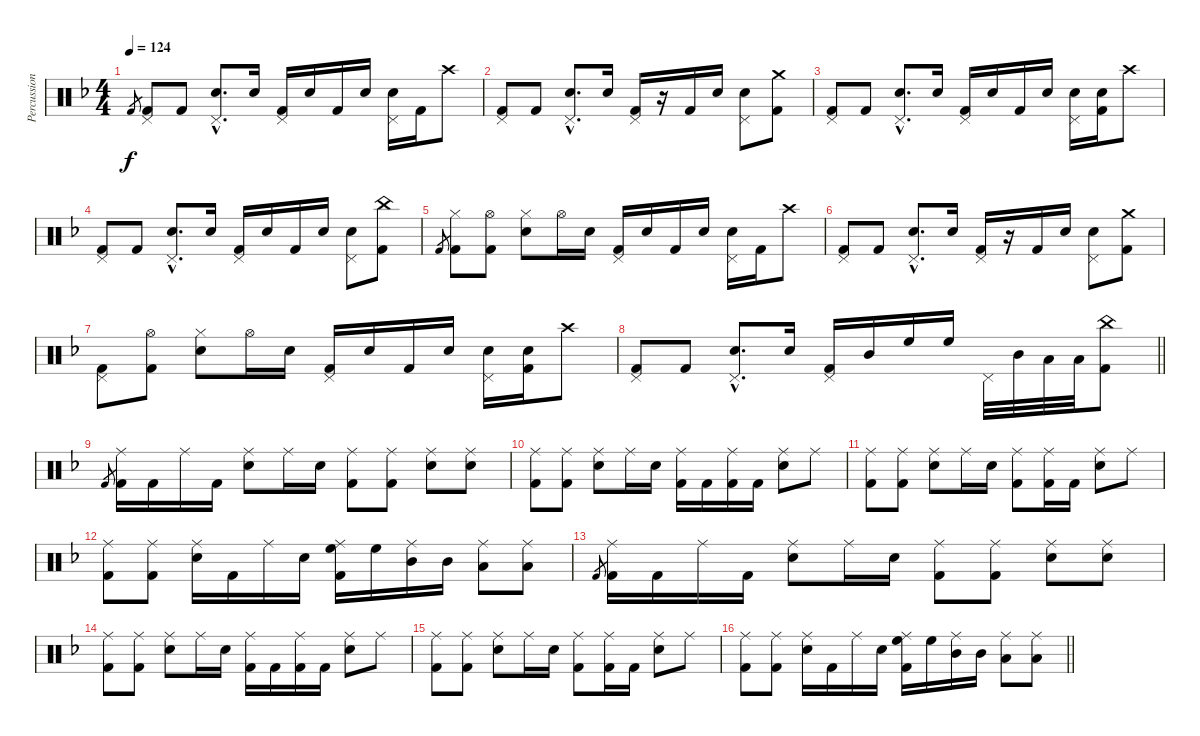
\track ("Percussions" "Percussion") {instrument percussion}
\staff {score}
\articulation defaults
\ts (4 4)
\tempo 124
\clef neutral
\ks dminor "Kick (hit) 2".8{gr dy f}
("Pedal Hi-Hat (hit)" "Kick (hit) 2").8{volume 14} "Kick (hit) 2".8 ("Pedal Hi-Hat (hit)"{hac} "Snare (hit) 2"{hac}).8{d} "Snare (hit) 2".16 ("Pedal Hi-Hat (hit)" "Kick (hit) 2").16 "Snare (hit) 2".16 "Kick (hit) 2".16 "Snare (hit) 2".16 ("Pedal Hi-Hat (hit)" "Snare (hit) 2").16 "Kick (hit) 2".16 "Crash high (hit)".8 |
("Pedal Hi-Hat (hit)" "Kick (hit) 2").8 "Kick (hit) 2".8 ("Pedal Hi-Hat (hit)"{hac} "Snare (hit) 2"{hac}).8{d} "Snare (hit) 2".16 ("Pedal Hi-Hat (hit)" "Kick (hit) 2").16 r.16 "Kick (hit) 2".16 "Snare (hit) 2".16 ("Pedal Hi-Hat (hit)" "Snare (hit) 2").8 ("Crash medium (hit)" "Kick (hit) 2").8 |
("Pedal Hi-Hat (hit)" "Kick (hit) 2").8 "Kick (hit) 2".8 ("Pedal Hi-Hat (hit)"{hac} "Snare (hit) 2"{hac}).8{d} "Snare (hit) 2".16 ("Pedal Hi-Hat (hit)" "Kick (hit) 2").16 "Snare (hit) 2".16 "Kick (hit) 2".16 "Snare (hit) 2".16 ("Pedal Hi-Hat (hit)" "Snare (hit) 2").16 ("Snare (hit) 2" "Kick (hit) 2").16 "Crash high (hit)".8 |
("Pedal Hi-Hat (hit)" "Kick (hit) 2").8 "Kick (hit) 2".8 ("Pedal Hi-Hat (hit)"{hac} "Snare (hit) 2"{hac}).8{d} "Snare (hit) 2".16 ("Pedal Hi-Hat (hit)" "Kick (hit) 2").16 "Snare (hit) 2".16 "Kick (hit) 2".16 "Snare (hit) 2".16 ("Pedal Hi-Hat (hit)" "Snare (hit) 2").8 ("China (hit)" "Kick (hit) 2").8 |
"Kick (hit) 2".8{gr} ("Hi-Hat (closed)" "Kick (hit) 2").8 ("Hi-Hat (open)" "Kick (hit) 2").8 ("Hi-Hat (closed)" "Snare (hit) 2").8 "Hi-Hat (open)".16 "Snare (hit) 2".16 ("Pedal Hi-Hat (hit)" "Kick (hit) 2").16 "Snare (hit) 2".16 "Kick (hit) 2".16 "Snare (hit) 2".16 ("Pedal Hi-Hat (hit)" "Snare (hit) 2").16 "Kick (hit) 2".16 "Crash high (hit)".8 |
("Pedal Hi-Hat (hit)" "Kick (hit) 2").8 "Kick (hit) 2".8 ("Pedal Hi-Hat (hit)"{hac} "Snare (hit) 2"{hac}).8{d} "Snare (hit) 2".16 ("Pedal Hi-Hat (hit)" "Kick (hit) 2").16 r.16 "Kick (hit) 2".16 "Snare (hit) 2".16 ("Pedal Hi-Hat (hit)" "Snare (hit) 2").8 ("Crash medium (hit)" "Kick (hit) 2").8 |
("Pedal Hi-Hat (hit)" "Kick (hit) 2").8 ("Hi-Hat (open)" "Kick (hit) 2").8 ("Hi-Hat (closed)" "Snare (hit) 2").8 "Hi-Hat (open)".16 "Snare (hit) 2".16 ("Pedal Hi-Hat (hit)" "Kick (hit) 2").16 "Snare (hit) 2".16 "Kick (hit) 2".16 "Snare (hit) 2".16 ("Pedal Hi-Hat (hit)" "Snare (hit) 2").16 ("Snare (hit) 2" "Kick (hit) 2").16 "Crash high (hit)".8 |
\barLineRight lightlight
("Pedal Hi-Hat (hit)" "Kick (hit) 2").8 "Kick (hit) 2".8 ("Pedal Hi-Hat (hit)"{hac} "Snare (hit) 2"{hac}).8{d} "Snare (hit) 2".16 ("Pedal Hi-Hat (hit)" "Kick (hit) 2").16 "Mid Tom (hit)".16 "High Floor Tom (hit)".16 "High Floor Tom (hit)".16 "Pedal Hi-Hat (hit)".32 "Mid Tom (hit)".32 "Low Tom (hit)".32 "Low Tom (hit)".32 ("China (hit)" "Kick (hit) 2").8 |
"Kick (hit) 2".8{gr} ("Ride (middle)" "Kick (hit) 2").16 "Kick (hit) 2".16 "Ride (middle)".16 "Kick (hit) 2".16 ("Ride (middle)" "Snare (hit) 2").8 "Ride (middle)".16 "Snare (hit) 2".16 ("Ride (middle)" "Kick (hit) 2").8 ("Ride (middle)" "Kick (hit) 2").8 ("Ride (middle)" "Snare (hit) 2").8 ("Ride (middle)" "Snare (hit) 2").8 |
("Ride (middle)" "Kick (hit) 2").8 ("Ride (middle)" "Kick (hit) 2").8 ("Ride (middle)" "Snare (hit) 2").8 "Ride (middle)".16 "Snare (hit) 2".16 ("Ride (middle)" "Kick (hit) 2").16 "Kick (hit) 2".16 ("Ride (middle)" "Kick (hit) 2").16 "Kick (hit) 2".16 ("Ride (middle)" "Snare (hit) 2").8 "Ride (middle)".8 |
("Ride (middle)" "Kick (hit) 2").8 ("Ride (middle)" "Kick (hit) 2").8 ("Ride (middle)" "Snare (hit) 2").8 "Ride (middle)".16 "Snare (hit) 2".16 ("Ride (middle)" "Kick (hit) 2").8 ("Ride (middle)" "Kick (hit) 2").16 "Kick (hit) 2".16 ("Ride (middle)" "Snare (hit) 2").8 "Ride (middle)".8 |
("Ride (middle)" "Kick (hit) 2").8 ("Ride (middle)" "Kick (hit) 2").8 ("Ride (middle)" "Snare (hit) 2").16 "Kick (hit) 2".16 "Ride (middle)".16 "Snare (hit) 2".16 ("Ride (middle)" "High Floor Tom (hit)" "Kick (hit) 2").16 "High Floor Tom (hit)".16 ("Ride (middle)" "Mid Tom (hit)").16 "Mid Tom (hit)".16 ("Ride (middle)" "Low Tom (hit)").8 ("Ride (middle)" "Low Floor Tom (hit)").8 |
"Kick (hit) 2".8{gr} ("Ride (middle)" "Kick (hit) 2").16 "Kick (hit) 2".16 "Ride (middle)".16 "Kick (hit) 2".16 ("Ride (middle)" "Snare (hit) 2").8 "Ride (middle)".16 "Snare (hit) 2".16 ("Ride (middle)" "Kick (hit) 2").8 ("Ride (middle)" "Kick (hit) 2").8 ("Ride (middle)" "Snare (hit) 2").8 ("Ride (middle)" "Snare (hit) 2").8 |
("Ride (middle)" "Kick (hit) 2").8 ("Ride (middle)" "Kick (hit) 2").8 ("Ride (middle)" "Snare (hit) 2").8 "Ride (middle)".16 "Snare (hit) 2".16 ("Ride (middle)" "Kick (hit) 2").16 "Kick (hit) 2".16 ("Ride (middle)" "Kick (hit) 2").16 "Kick (hit) 2".16 ("Ride (middle)" "Snare (hit) 2").8 "Ride (middle)".8 |
("Ride (middle)" "Kick (hit) 2").8 ("Ride (middle)" "Kick (hit) 2").8 ("Ride (middle)" "Snare (hit) 2").8 "Ride (middle)".16 "Snare (hit) 2".16 ("Ride (middle)" "Kick (hit) 2").8 ("Ride (middle)" "Kick (hit) 2").16 "Kick (hit) 2".16 ("Ride (middle)" "Snare (hit) 2").8 "Ride (middle)".8 |
\barLineRight lightlight
("Ride (middle)" "Kick (hit) 2").8 ("Ride (middle)" "Kick (hit) 2").8 ("Ride (middle)" "Snare (hit) 2").16 "Kick (hit) 2".16 "Ride (middle)".16 "Snare (hit) 2".16 ("Ride (middle)" "High Floor Tom (hit)" "Kick (hit) 2").16 "High Floor Tom (hit)".16 ("Ride (middle)" "Mid Tom (hit)").16 "Mid Tom (hit)".16 ("Ride (middle)" "Low Tom (hit)").8 ("Ride (middle)" "Low Floor Tom (hit)").8
